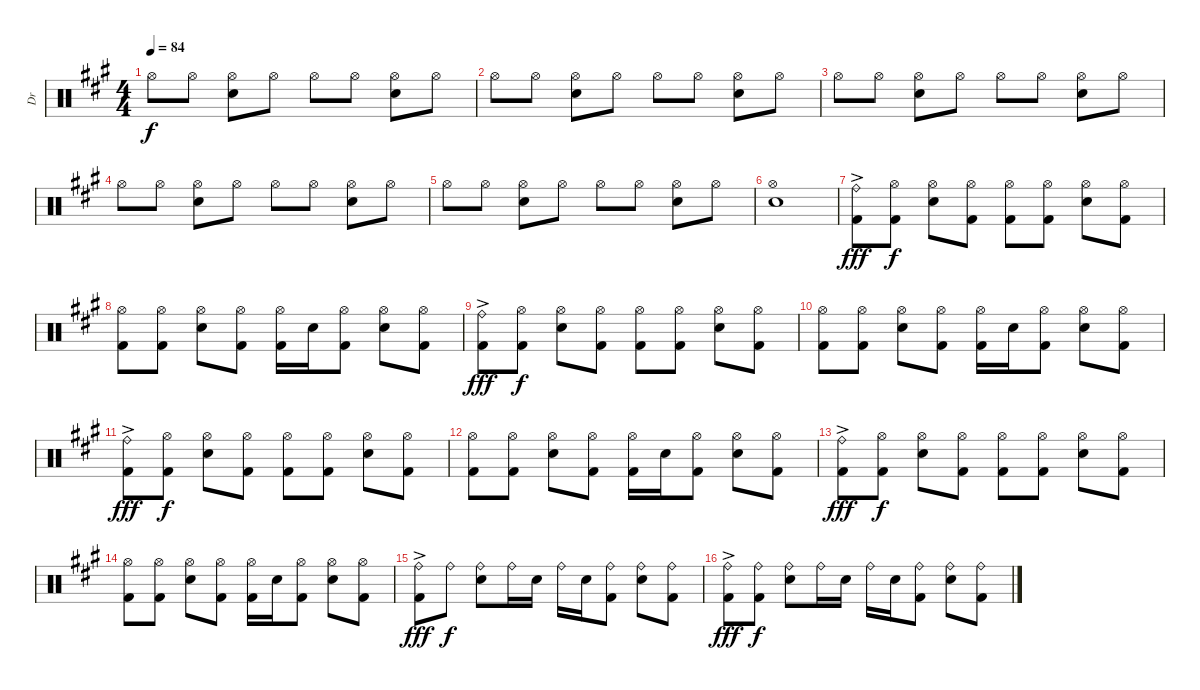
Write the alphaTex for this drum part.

\track ("Dr" "Dr") {instrument percussion}
\staff {score}
\articulation defaults
\ts (4 4)
\tempo 84
\clef neutral
\ks a "Hi-Hat (open)".8{dy f} "Hi-Hat (open)".8
("Hi-Hat (open)" "Electric Snare (hit)").8 "Hi-Hat (open)".8 "Hi-Hat (open)".8 "Hi-Hat (open)".8 ("Hi-Hat (open)" "Electric Snare (hit)").8 "Hi-Hat (open)".8 |
"Hi-Hat (open)".8 "Hi-Hat (open)".8 ("Hi-Hat (open)" "Electric Snare (hit)").8 "Hi-Hat (open)".8 "Hi-Hat (open)".8 "Hi-Hat (open)".8 ("Hi-Hat (open)" "Electric Snare (hit)").8 "Hi-Hat (open)".8 |
"Hi-Hat (open)".8 "Hi-Hat (open)".8 ("Hi-Hat (open)" "Electric Snare (hit)").8 "Hi-Hat (open)".8 "Hi-Hat (open)".8 "Hi-Hat (open)".8 ("Hi-Hat (open)" "Electric Snare (hit)").8 "Hi-Hat (open)".8 |
"Hi-Hat (open)".8 "Hi-Hat (open)".8 ("Hi-Hat (open)" "Electric Snare (hit)").8 "Hi-Hat (open)".8 "Hi-Hat (open)".8 "Hi-Hat (open)".8 ("Hi-Hat (open)" "Electric Snare (hit)").8 "Hi-Hat (open)".8 |
"Hi-Hat (open)".8 "Hi-Hat (open)".8 ("Hi-Hat (open)" "Electric Snare (hit)").8 "Hi-Hat (open)".8 "Hi-Hat (open)".8 "Hi-Hat (open)".8 ("Hi-Hat (open)" "Electric Snare (hit)").8 "Hi-Hat (open)".8 |
("Hi-Hat (open)" "Electric Snare (hit)").1 |
("Ride (bell)"{ac} "Kick (hit) 2"{ac}).8{dy fff} ("Hi-Hat (open)" "Kick (hit) 2").8{dy f} ("Hi-Hat (open)" "Electric Snare (hit)").8 ("Hi-Hat (open)" "Kick (hit) 2").8 ("Hi-Hat (open)" "Kick (hit) 2").8 ("Hi-Hat (open)" "Kick (hit) 2").8 ("Hi-Hat (open)" "Electric Snare (hit)").8 ("Hi-Hat (open)" "Kick (hit) 2").8 |
("Hi-Hat (open)" "Kick (hit) 2").8 ("Hi-Hat (open)" "Kick (hit) 2").8 ("Hi-Hat (open)" "Electric Snare (hit)").8 ("Hi-Hat (open)" "Kick (hit) 2").8 ("Hi-Hat (open)" "Kick (hit) 2").16 "Electric Snare (hit)".16 ("Hi-Hat (open)" "Kick (hit) 2").8 ("Hi-Hat (open)" "Electric Snare (hit)").8 ("Hi-Hat (open)" "Kick (hit) 2").8 |
("Ride (bell)"{ac} "Kick (hit) 2"{ac}).8{dy fff} ("Hi-Hat (open)" "Kick (hit) 2").8{dy f} ("Hi-Hat (open)" "Electric Snare (hit)").8 ("Hi-Hat (open)" "Kick (hit) 2").8 ("Hi-Hat (open)" "Kick (hit) 2").8 ("Hi-Hat (open)" "Kick (hit) 2").8 ("Hi-Hat (open)" "Electric Snare (hit)").8 ("Hi-Hat (open)" "Kick (hit) 2").8 |
("Hi-Hat (open)" "Kick (hit) 2").8 ("Hi-Hat (open)" "Kick (hit) 2").8 ("Hi-Hat (open)" "Electric Snare (hit)").8 ("Hi-Hat (open)" "Kick (hit) 2").8 ("Hi-Hat (open)" "Kick (hit) 2").16 "Electric Snare (hit)".16 ("Hi-Hat (open)" "Kick (hit) 2").8 ("Hi-Hat (open)" "Electric Snare (hit)").8 ("Hi-Hat (open)" "Kick (hit) 2").8 |
("Ride (bell)"{ac} "Kick (hit) 2"{ac}).8{dy fff} ("Hi-Hat (open)" "Kick (hit) 2").8{dy f} ("Hi-Hat (open)" "Electric Snare (hit)").8 ("Hi-Hat (open)" "Kick (hit) 2").8 ("Hi-Hat (open)" "Kick (hit) 2").8 ("Hi-Hat (open)" "Kick (hit) 2").8 ("Hi-Hat (open)" "Electric Snare (hit)").8 ("Hi-Hat (open)" "Kick (hit) 2").8 |
("Hi-Hat (open)" "Kick (hit) 2").8 ("Hi-Hat (open)" "Kick (hit) 2").8 ("Hi-Hat (open)" "Electric Snare (hit)").8 ("Hi-Hat (open)" "Kick (hit) 2").8 ("Hi-Hat (open)" "Kick (hit) 2").16 "Electric Snare (hit)".16 ("Hi-Hat (open)" "Kick (hit) 2").8 ("Hi-Hat (open)" "Electric Snare (hit)").8 ("Hi-Hat (open)" "Kick (hit) 2").8 |
("Ride (bell)"{ac} "Kick (hit) 2"{ac}).8{dy fff} ("Hi-Hat (open)" "Kick (hit) 2").8{dy f} ("Hi-Hat (open)" "Electric Snare (hit)").8 ("Hi-Hat (open)" "Kick (hit) 2").8 ("Hi-Hat (open)" "Kick (hit) 2").8 ("Hi-Hat (open)" "Kick (hit) 2").8 ("Hi-Hat (open)" "Electric Snare (hit)").8 ("Hi-Hat (open)" "Kick (hit) 2").8 |
("Hi-Hat (open)" "Kick (hit) 2").8 ("Hi-Hat (open)" "Kick (hit) 2").8 ("Hi-Hat (open)" "Electric Snare (hit)").8 ("Hi-Hat (open)" "Kick (hit) 2").8 ("Hi-Hat (open)" "Kick (hit) 2").16 "Electric Snare (hit)".16 ("Hi-Hat (open)" "Kick (hit) 2").8 ("Hi-Hat (open)" "Electric Snare (hit)").8 ("Hi-Hat (open)" "Kick (hit) 2").8 |
("Ride (bell)"{ac} "Kick (hit) 2"{ac}).8{dy fff} "Ride (bell)".8{dy f} ("Ride (bell)" "Electric Snare (hit)").8 "Ride (bell)".16 "Electric Snare (hit)".16 "Ride (bell)".16 "Electric Snare (hit)".16 ("Ride (bell)" "Kick (hit) 2").8 ("Ride (bell)" "Electric Snare (hit)").8 ("Ride (bell)" "Kick (hit) 2").8 |
("Ride (bell)"{ac} "Kick (hit) 2"{ac}).8{dy fff} ("Ride (bell)" "Kick (hit) 2").8{dy f} ("Ride (bell)" "Electric Snare (hit)").8 "Ride (bell)".16 "Electric Snare (hit)".16 "Ride (bell)".16 "Electric Snare (hit)".16 ("Ride (bell)" "Kick (hit) 2").8 ("Ride (bell)" "Electric Snare (hit)").8 ("Ride (bell)" "Kick (hit) 2").8
